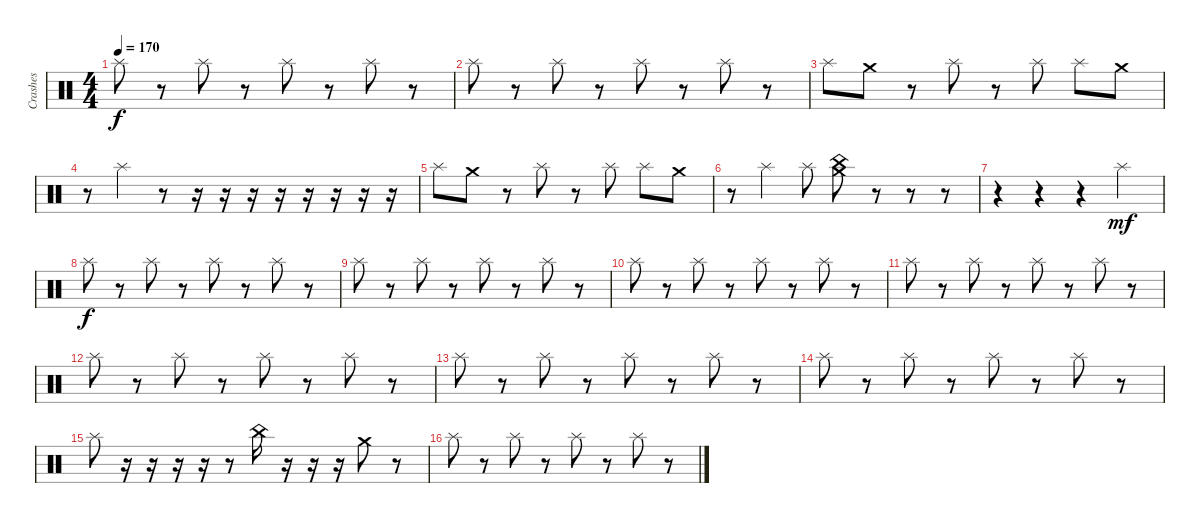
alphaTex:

\track ("Crashes" "Crashes") {instrument percussion}
\staff {score}
\articulation defaults
\ts (4 4)
\tempo 170
\clef neutral
\ks c "Splash (hit)".8{dy f}
r.8 "Splash (hit)".8 r.8 "Splash (hit)".8 r.8 "Splash (hit)".8 r.8 |
"Splash (hit)".8 r.8 "Splash (hit)".8 r.8 "Splash (hit)".8 r.8 "Splash (hit)".8 r.8 |
"Splash (hit)".8 "Crash medium (hit)".8 r.8 "Splash (hit)".8 r.8 "Splash (hit)".8 "Splash (hit)".8 "Crash medium (hit)".8 |
r.8 "Splash (hit)".4 r.8 r.16 r.16 r.16 r.16 r.16 r.16 r.16 r.16 |
"Splash (hit)".8 "Crash medium (hit)".8 r.8 "Splash (hit)".8 r.8 "Splash (hit)".8 "Splash (hit)".8 "Crash medium (hit)".8 |
r.8 "Splash (hit)".4 "Splash (hit)".8 ("Crash medium (hit)" "China (hit)").8 r.8 r.8 r.8 |
r.4 r.4 r.4 "Splash (hit)".4{dy mf} |
"Splash (hit)".8{dy f} r.8 "Splash (hit)".8 r.8 "Splash (hit)".8 r.8 "Splash (hit)".8 r.8 |
"Splash (hit)".8 r.8 "Splash (hit)".8 r.8 "Splash (hit)".8 r.8 "Splash (hit)".8 r.8 |
"Splash (hit)".8 r.8 "Splash (hit)".8 r.8 "Splash (hit)".8 r.8 "Splash (hit)".8 r.8 |
"Splash (hit)".8 r.8 "Splash (hit)".8 r.8 "Splash (hit)".8 r.8 "Splash (hit)".8 r.8 |
"Splash (hit)".8 r.8 "Splash (hit)".8 r.8 "Splash (hit)".8 r.8 "Splash (hit)".8 r.8 |
"Splash (hit)".8 r.8 "Splash (hit)".8 r.8 "Splash (hit)".8 r.8 "Splash (hit)".8 r.8 |
"Splash (hit)".8 r.8 "Splash (hit)".8 r.8 "Splash (hit)".8 r.8 "Splash (hit)".8 r.8 |
"Splash (hit)".8 r.16 r.16 r.16 r.16 r.8 "China (hit)".16 r.16 r.16 r.16 "Crash medium (hit)".8 r.8 |
"Splash (hit)".8 r.8 "Splash (hit)".8 r.8 "Splash (hit)".8 r.8 "Splash (hit)".8 r.8
